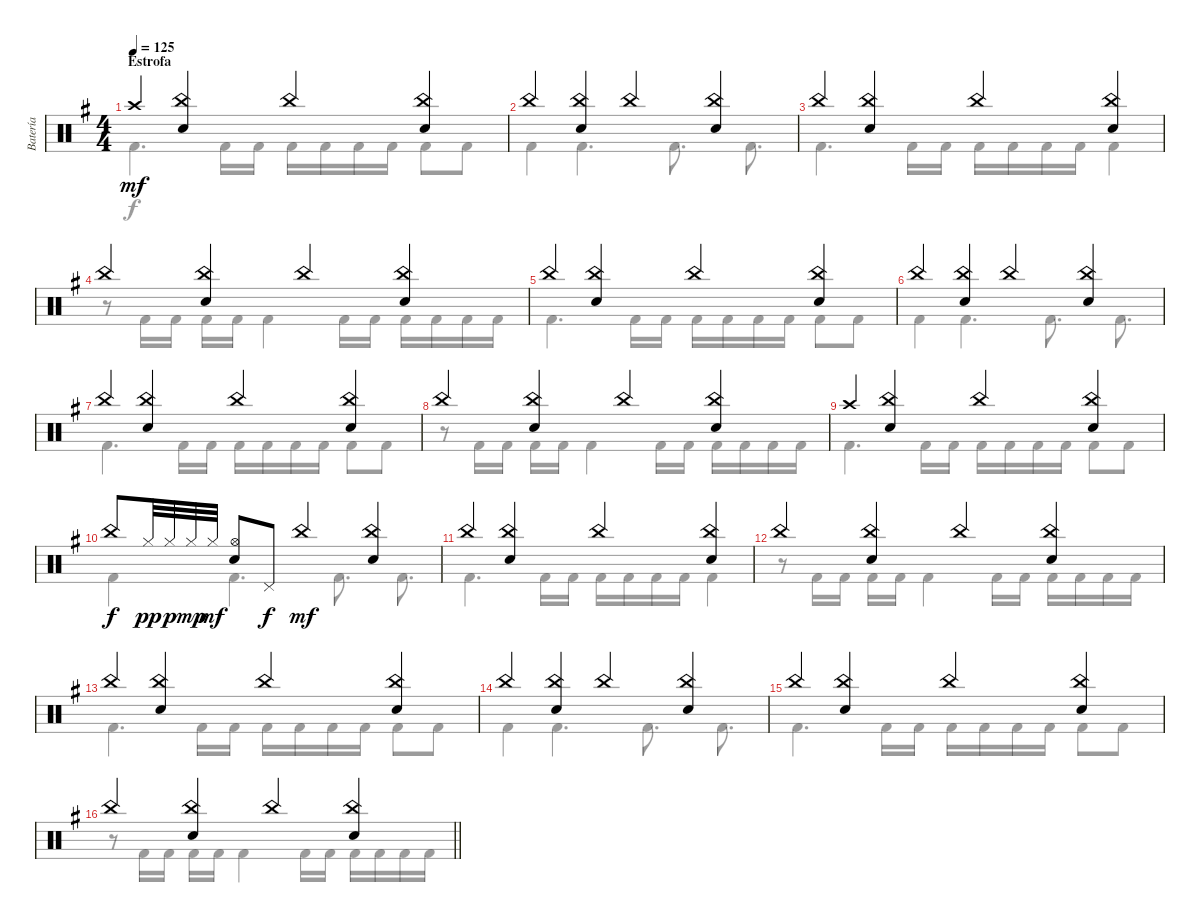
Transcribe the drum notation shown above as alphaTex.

\track ("Batería" "Batería") {instrument percussion}
\staff {score}
\articulation defaults
\voice
\ts (4 4)
\section ("" "Estrofa")
\tempo 125
\clef neutral
\ks g "Crash high (hit)".4{dy mf volume 13}
("China (hit)" "Snare (hit) 2").4 "China (hit)".4 ("China (hit)" "Snare (hit) 2").4 |
"China (hit)".4 ("China (hit)" "Snare (hit) 2").4 "China (hit)".4 ("China (hit)" "Snare (hit) 2").4 |
"China (hit)".4 ("China (hit)" "Snare (hit) 2").4 "China (hit)".4 ("China (hit)" "Snare (hit) 2").4 |
"China (hit)".4 ("China (hit)" "Snare (hit) 2").4 "China (hit)".4 ("China (hit)" "Snare (hit) 2").4 |
"China (hit)".4 ("China (hit)" "Snare (hit) 2").4 "China (hit)".4 ("China (hit)" "Snare (hit) 2").4 |
"China (hit)".4 ("China (hit)" "Snare (hit) 2").4 "China (hit)".4 ("China (hit)" "Snare (hit) 2").4 |
"China (hit)".4 ("China (hit)" "Snare (hit) 2").4 "China (hit)".4 ("China (hit)" "Snare (hit) 2").4 |
"China (hit)".4 ("China (hit)" "Snare (hit) 2").4 "China (hit)".4 ("China (hit)" "Snare (hit) 2").4 |
"Crash high (hit)".4{volume 13} ("China (hit)" "Snare (hit) 2").4 "China (hit)".4 ("China (hit)" "Snare (hit) 2").4 |
"China (hit)".8{dy f} "Hi-Hat (closed)".32{dy pp} "Hi-Hat (closed)".32{dy p} "Hi-Hat (closed)".32{dy mp} "Hi-Hat (closed)".32{dy mf} ("Hi-Hat (open)" "Snare (hit) 2").8 "Pedal Hi-Hat (hit)".8{dy f} "China (hit)".4{dy mf} ("China (hit)" "Snare (hit) 2").4 |
"China (hit)".4 ("China (hit)" "Snare (hit) 2").4 "China (hit)".4 ("China (hit)" "Snare (hit) 2").4 |
"China (hit)".4 ("China (hit)" "Snare (hit) 2").4 "China (hit)".4 ("China (hit)" "Snare (hit) 2").4 |
"China (hit)".4 ("China (hit)" "Snare (hit) 2").4 "China (hit)".4 ("China (hit)" "Snare (hit) 2").4 |
"China (hit)".4 ("China (hit)" "Snare (hit) 2").4 "China (hit)".4 ("China (hit)" "Snare (hit) 2").4 |
"China (hit)".4 ("China (hit)" "Snare (hit) 2").4 "China (hit)".4 ("China (hit)" "Snare (hit) 2").4 |
\barLineRight lightlight "China (hit)".4
("China (hit)" "Snare (hit) 2").4 "China (hit)".4 ("China (hit)" "Snare (hit) 2").4
\voice
\clef neutral
\ottava regular
\simile none
\ks g "Kick (hit) 2".4{d dy f} "Kick (hit) 2".16 "Kick (hit) 2".16 "Kick (hit) 2".16 "Kick (hit) 2".16 "Kick (hit) 2".16 "Kick (hit) 2".16 "Kick (hit) 2".8 "Kick (hit) 2".8
|
"Kick (hit) 2".4 "Kick (hit) 2".4{d} "Kick (hit) 2".8{d} "Kick (hit) 2".8{d} |
"Kick (hit) 2".4{d} "Kick (hit) 2".16 "Kick (hit) 2".16 "Kick (hit) 2".16 "Kick (hit) 2".16 "Kick (hit) 2".16 "Kick (hit) 2".16 "Kick (hit) 2".4 |
r.8 "Kick (hit) 2".16 "Kick (hit) 2".16 "Kick (hit) 2".16 "Kick (hit) 2".16 "Kick (hit) 2".4 "Kick (hit) 2".16 "Kick (hit) 2".16 "Kick (hit) 2".16 "Kick (hit) 2".16 "Kick (hit) 2".16 "Kick (hit) 2".16 |
"Kick (hit) 2".4{d} "Kick (hit) 2".16 "Kick (hit) 2".16 "Kick (hit) 2".16 "Kick (hit) 2".16 "Kick (hit) 2".16 "Kick (hit) 2".16 "Kick (hit) 2".8 "Kick (hit) 2".8 |
"Kick (hit) 2".4 "Kick (hit) 2".4{d} "Kick (hit) 2".8{d} "Kick (hit) 2".8{d} |
"Kick (hit) 2".4{d} "Kick (hit) 2".16 "Kick (hit) 2".16 "Kick (hit) 2".16 "Kick (hit) 2".16 "Kick (hit) 2".16 "Kick (hit) 2".16 "Kick (hit) 2".8 "Kick (hit) 2".8 |
r.8 "Kick (hit) 2".16 "Kick (hit) 2".16 "Kick (hit) 2".16 "Kick (hit) 2".16 "Kick (hit) 2".4 "Kick (hit) 2".16 "Kick (hit) 2".16 "Kick (hit) 2".16 "Kick (hit) 2".16 "Kick (hit) 2".16 "Kick (hit) 2".16 |
"Kick (hit) 2".4{d} "Kick (hit) 2".16 "Kick (hit) 2".16 "Kick (hit) 2".16 "Kick (hit) 2".16 "Kick (hit) 2".16 "Kick (hit) 2".16 "Kick (hit) 2".8 "Kick (hit) 2".8 |
"Kick (hit) 2".4 "Kick (hit) 2".4{d} "Kick (hit) 2".8{d} "Kick (hit) 2".8{d} |
"Kick (hit) 2".4{d} "Kick (hit) 2".16 "Kick (hit) 2".16 "Kick (hit) 2".16 "Kick (hit) 2".16 "Kick (hit) 2".16 "Kick (hit) 2".16 "Kick (hit) 2".4 |
r.8 "Kick (hit) 2".16 "Kick (hit) 2".16 "Kick (hit) 2".16 "Kick (hit) 2".16 "Kick (hit) 2".4 "Kick (hit) 2".16 "Kick (hit) 2".16 "Kick (hit) 2".16 "Kick (hit) 2".16 "Kick (hit) 2".16 "Kick (hit) 2".16 |
"Kick (hit) 2".4{d} "Kick (hit) 2".16 "Kick (hit) 2".16 "Kick (hit) 2".16 "Kick (hit) 2".16 "Kick (hit) 2".16 "Kick (hit) 2".16 "Kick (hit) 2".8 "Kick (hit) 2".8 |
"Kick (hit) 2".4 "Kick (hit) 2".4{d} "Kick (hit) 2".8{d} "Kick (hit) 2".8{d} |
"Kick (hit) 2".4{d} "Kick (hit) 2".16 "Kick (hit) 2".16 "Kick (hit) 2".16 "Kick (hit) 2".16 "Kick (hit) 2".16 "Kick (hit) 2".16 "Kick (hit) 2".8 "Kick (hit) 2".8 |
\barLineRight lightlight
r.8 "Kick (hit) 2".16 "Kick (hit) 2".16 "Kick (hit) 2".16 "Kick (hit) 2".16 "Kick (hit) 2".4 "Kick (hit) 2".16 "Kick (hit) 2".16 "Kick (hit) 2".16 "Kick (hit) 2".16 "Kick (hit) 2".16 "Kick (hit) 2".16
